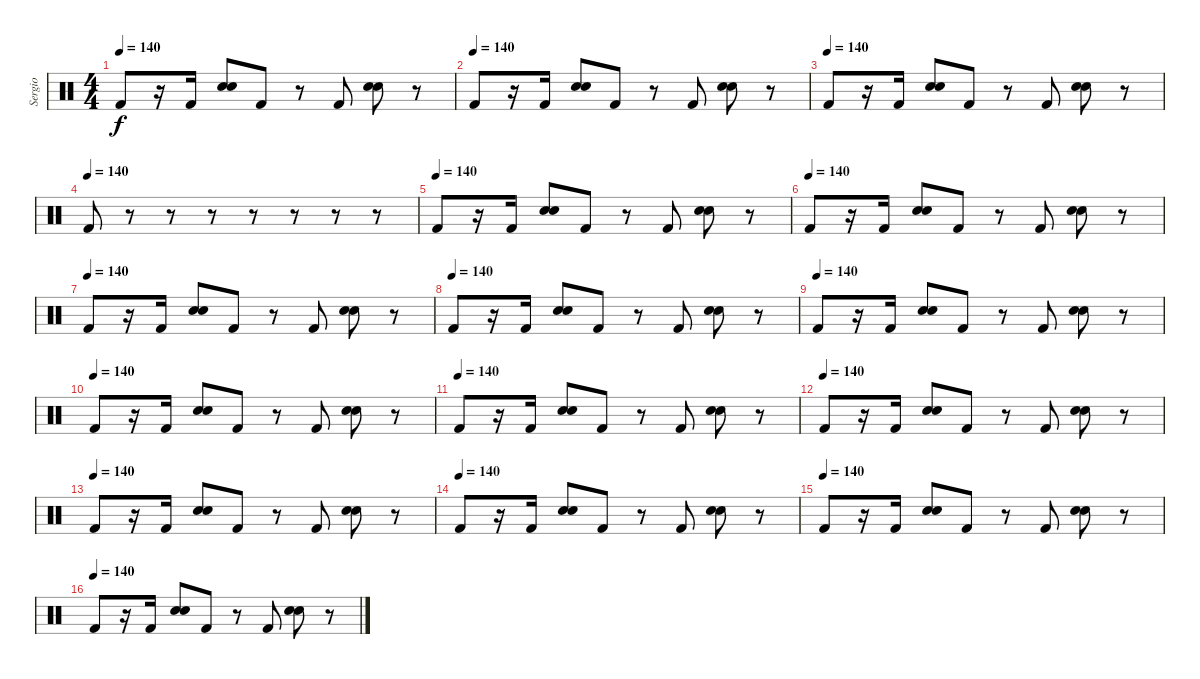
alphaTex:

\track ("Sergio" "Sergio") {instrument percussion}
\staff {score}
\articulation defaults
\ts (4 4)
\tempo 140
\clef neutral
\ks c "Kick (hit) 2".8{dy f}
r.16 "Kick (hit) 2".16 ("Snare (hit) 2" "Snare (hit) 2").8 "Kick (hit) 2".8 r.8 "Kick (hit) 2".8 ("Snare (hit) 2" "Snare (hit) 2").8 r.8 |
\tempo (140)
"Kick (hit) 2".8 r.16 "Kick (hit) 2".16 ("Snare (hit) 2" "Snare (hit) 2").8 "Kick (hit) 2".8 r.8 "Kick (hit) 2".8 ("Snare (hit) 2" "Snare (hit) 2").8 r.8 |
\tempo (140)
"Kick (hit) 2".8 r.16 "Kick (hit) 2".16 ("Snare (hit) 2" "Snare (hit) 2").8 "Kick (hit) 2".8 r.8 "Kick (hit) 2".8 ("Snare (hit) 2" "Snare (hit) 2").8 r.8 |
\tempo (140)
"Kick (hit) 2".8 r.8 r.8 r.8 r.8 r.8 r.8 r.8 |
\tempo (140)
"Kick (hit) 2".8 r.16 "Kick (hit) 2".16 ("Snare (hit) 2" "Snare (hit) 2").8 "Kick (hit) 2".8 r.8 "Kick (hit) 2".8 ("Snare (hit) 2" "Snare (hit) 2").8 r.8 |
\tempo (140)
"Kick (hit) 2".8 r.16 "Kick (hit) 2".16 ("Snare (hit) 2" "Snare (hit) 2").8 "Kick (hit) 2".8 r.8 "Kick (hit) 2".8 ("Snare (hit) 2" "Snare (hit) 2").8 r.8 |
\tempo (140)
"Kick (hit) 2".8 r.16 "Kick (hit) 2".16 ("Snare (hit) 2" "Snare (hit) 2").8 "Kick (hit) 2".8 r.8 "Kick (hit) 2".8 ("Snare (hit) 2" "Snare (hit) 2").8 r.8 |
\tempo (140)
"Kick (hit) 2".8 r.16 "Kick (hit) 2".16 ("Snare (hit) 2" "Snare (hit) 2").8 "Kick (hit) 2".8 r.8 "Kick (hit) 2".8 ("Snare (hit) 2" "Snare (hit) 2").8 r.8 |
\tempo (140)
"Kick (hit) 2".8 r.16 "Kick (hit) 2".16 ("Snare (hit) 2" "Snare (hit) 2").8 "Kick (hit) 2".8 r.8 "Kick (hit) 2".8 ("Snare (hit) 2" "Snare (hit) 2").8 r.8 |
\tempo (140)
"Kick (hit) 2".8 r.16 "Kick (hit) 2".16 ("Snare (hit) 2" "Snare (hit) 2").8 "Kick (hit) 2".8 r.8 "Kick (hit) 2".8 ("Snare (hit) 2" "Snare (hit) 2").8 r.8 |
\tempo (140)
"Kick (hit) 2".8 r.16 "Kick (hit) 2".16 ("Snare (hit) 2" "Snare (hit) 2").8 "Kick (hit) 2".8 r.8 "Kick (hit) 2".8 ("Snare (hit) 2" "Snare (hit) 2").8 r.8 |
\tempo (140)
"Kick (hit) 2".8 r.16 "Kick (hit) 2".16 ("Snare (hit) 2" "Snare (hit) 2").8 "Kick (hit) 2".8 r.8 "Kick (hit) 2".8 ("Snare (hit) 2" "Snare (hit) 2").8 r.8 |
\tempo (140)
"Kick (hit) 2".8 r.16 "Kick (hit) 2".16 ("Snare (hit) 2" "Snare (hit) 2").8 "Kick (hit) 2".8 r.8 "Kick (hit) 2".8 ("Snare (hit) 2" "Snare (hit) 2").8 r.8 |
\tempo (140)
"Kick (hit) 2".8 r.16 "Kick (hit) 2".16 ("Snare (hit) 2" "Snare (hit) 2").8 "Kick (hit) 2".8 r.8 "Kick (hit) 2".8 ("Snare (hit) 2" "Snare (hit) 2").8 r.8 |
\tempo (140)
"Kick (hit) 2".8 r.16 "Kick (hit) 2".16 ("Snare (hit) 2" "Snare (hit) 2").8 "Kick (hit) 2".8 r.8 "Kick (hit) 2".8 ("Snare (hit) 2" "Snare (hit) 2").8 r.8 |
\tempo (140)
"Kick (hit) 2".8 r.16 "Kick (hit) 2".16 ("Snare (hit) 2" "Snare (hit) 2").8 "Kick (hit) 2".8 r.8 "Kick (hit) 2".8 ("Snare (hit) 2" "Snare (hit) 2").8 r.8
